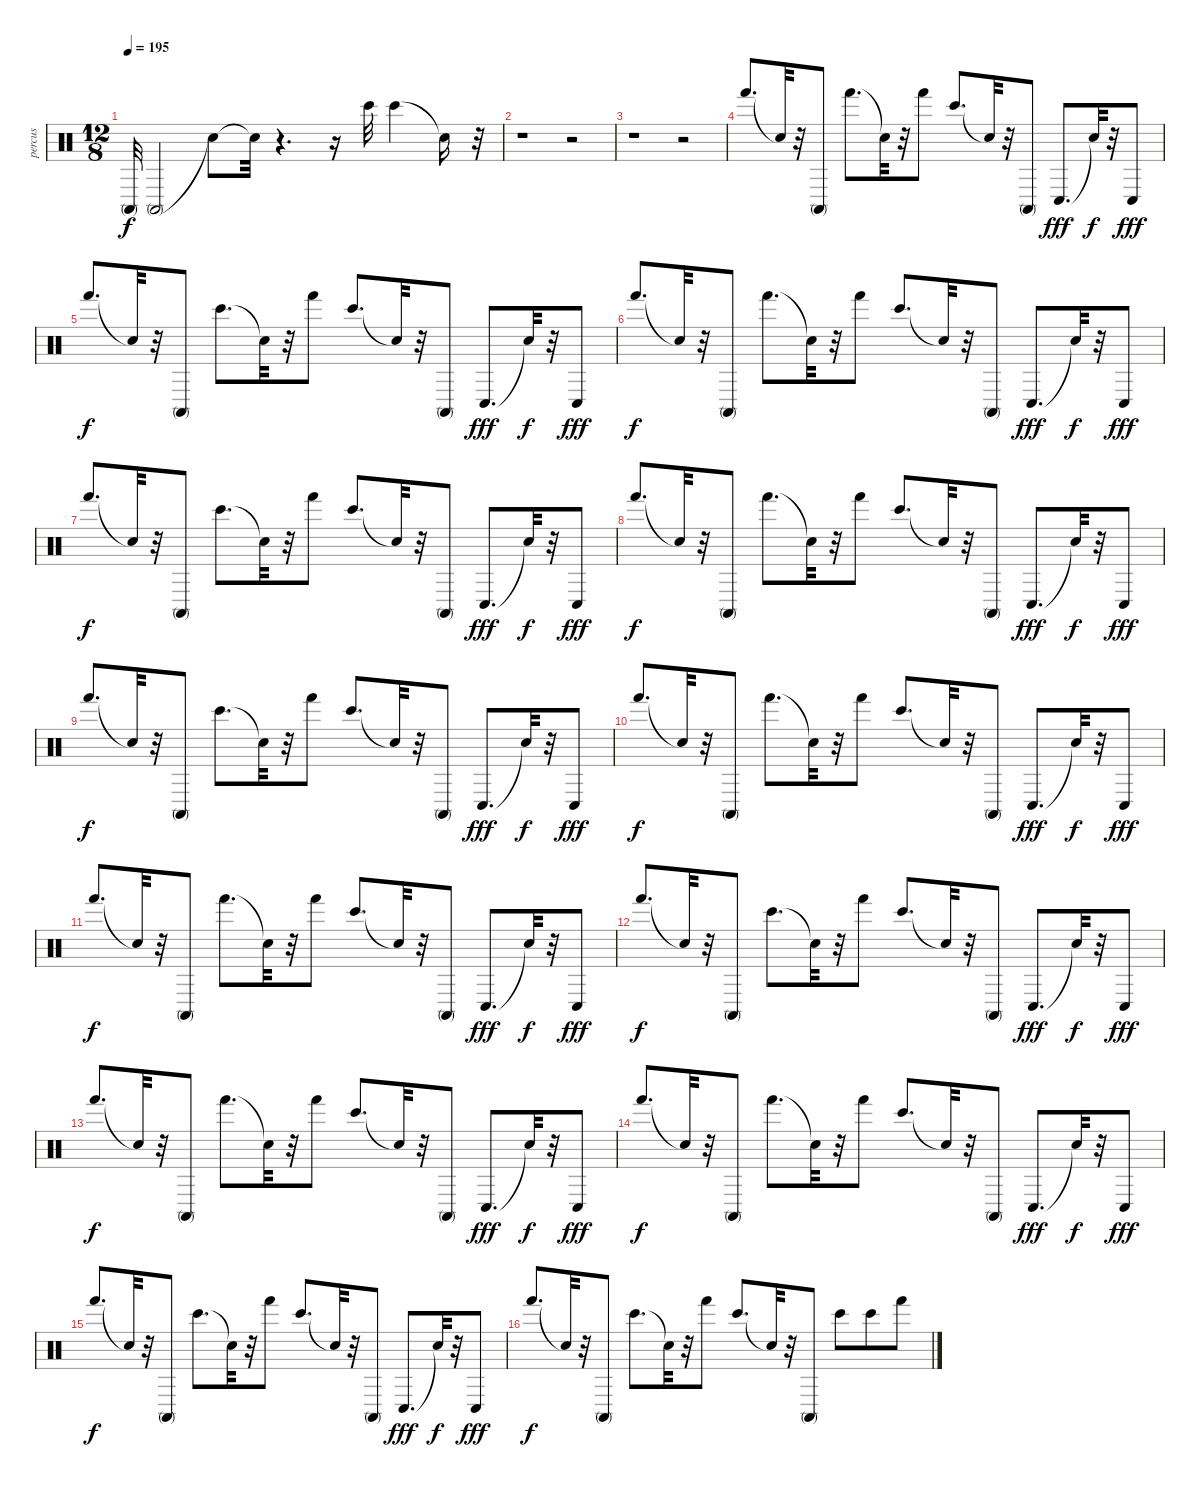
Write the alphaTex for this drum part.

\track ("percus" "percus") {instrument percussion}
\staff {score}
\articulation defaults
\ts (12 8)
\tempo 195
\clef neutral
\ks c "Conga high (mute)".32{dy f} "Conga high (mute)".2 "Snare (hit)"{t}.8 "Snare (hit)"{t}.32
r.4{d} r.16 "Bongo High (hit)".32 "Bongo High (hit)".4 "Snare (hit)"{t}.16 r.32 |
r.1 r.2 |
r.1 r.2 |
"Hand (hit)".8{d} "Snare (hit)"{t}.32 r.32 "Conga high (mute)".8 "Hand (hit)".8{d} "Snare (hit)"{t}.32 r.32 "Hand (hit)".8 "Bongo High (hit)".8{d} "Snare (hit)"{t}.32 r.32 "Conga high (mute)".8 "Conga low (hit)".8{d dy fff} "Snare (hit)"{t}.32{dy f} r.32 "Conga low (hit)".8{dy fff} |
"Hand (hit)".8{d dy f} "Snare (hit)"{t}.32 r.32 "Conga high (mute)".8 "Bongo High (hit)".8{d} "Snare (hit)"{t}.32 r.32 "Hand (hit)".8 "Bongo High (hit)".8{d} "Snare (hit)"{t}.32 r.32 "Conga high (mute)".8 "Conga low (hit)".8{d dy fff} "Snare (hit)"{t}.32{dy f} r.32 "Conga low (hit)".8{dy fff} |
"Hand (hit)".8{d dy f} "Snare (hit)"{t}.32 r.32 "Conga high (mute)".8 "Hand (hit)".8{d} "Snare (hit)"{t}.32 r.32 "Hand (hit)".8 "Bongo High (hit)".8{d} "Snare (hit)"{t}.32 r.32 "Conga high (mute)".8 "Conga low (hit)".8{d dy fff} "Snare (hit)"{t}.32{dy f} r.32 "Conga low (hit)".8{dy fff} |
"Hand (hit)".8{d dy f} "Snare (hit)"{t}.32 r.32 "Conga high (mute)".8 "Bongo High (hit)".8{d} "Snare (hit)"{t}.32 r.32 "Hand (hit)".8 "Bongo High (hit)".8{d} "Snare (hit)"{t}.32 r.32 "Conga high (mute)".8 "Conga low (hit)".8{d dy fff} "Snare (hit)"{t}.32{dy f} r.32 "Conga low (hit)".8{dy fff} |
"Hand (hit)".8{d dy f} "Snare (hit)"{t}.32 r.32 "Conga high (mute)".8 "Hand (hit)".8{d} "Snare (hit)"{t}.32 r.32 "Hand (hit)".8 "Bongo High (hit)".8{d} "Snare (hit)"{t}.32 r.32 "Conga high (mute)".8 "Conga low (hit)".8{d dy fff} "Snare (hit)"{t}.32{dy f} r.32 "Conga low (hit)".8{dy fff} |
"Hand (hit)".8{d dy f} "Snare (hit)"{t}.32 r.32 "Conga high (mute)".8 "Bongo High (hit)".8{d} "Snare (hit)"{t}.32 r.32 "Hand (hit)".8 "Bongo High (hit)".8{d} "Snare (hit)"{t}.32 r.32 "Conga high (mute)".8 "Conga low (hit)".8{d dy fff} "Snare (hit)"{t}.32{dy f} r.32 "Conga low (hit)".8{dy fff} |
"Hand (hit)".8{d dy f} "Snare (hit)"{t}.32 r.32 "Conga high (mute)".8 "Hand (hit)".8{d} "Snare (hit)"{t}.32 r.32 "Hand (hit)".8 "Bongo High (hit)".8{d} "Snare (hit)"{t}.32 r.32 "Conga high (mute)".8 "Conga low (hit)".8{d dy fff} "Snare (hit)"{t}.32{dy f} r.32 "Conga low (hit)".8{dy fff} |
"Hand (hit)".8{d dy f} "Snare (hit)"{t}.32 r.32 "Conga high (mute)".8 "Hand (hit)".8{d} "Snare (hit)"{t}.32 r.32 "Hand (hit)".8 "Bongo High (hit)".8{d} "Snare (hit)"{t}.32 r.32 "Conga high (mute)".8 "Conga low (hit)".8{d dy fff} "Snare (hit)"{t}.32{dy f} r.32 "Conga low (hit)".8{dy fff} |
"Hand (hit)".8{d dy f} "Snare (hit)"{t}.32 r.32 "Conga high (mute)".8 "Bongo High (hit)".8{d} "Snare (hit)"{t}.32 r.32 "Hand (hit)".8 "Bongo High (hit)".8{d} "Snare (hit)"{t}.32 r.32 "Conga high (mute)".8 "Conga low (hit)".8{d dy fff} "Snare (hit)"{t}.32{dy f} r.32 "Conga low (hit)".8{dy fff} |
"Hand (hit)".8{d dy f} "Snare (hit)"{t}.32 r.32 "Conga high (mute)".8 "Hand (hit)".8{d} "Snare (hit)"{t}.32 r.32 "Hand (hit)".8 "Bongo High (hit)".8{d} "Snare (hit)"{t}.32 r.32 "Conga high (mute)".8 "Conga low (hit)".8{d dy fff} "Snare (hit)"{t}.32{dy f} r.32 "Conga low (hit)".8{dy fff} |
"Hand (hit)".8{d dy f} "Snare (hit)"{t}.32 r.32 "Conga high (mute)".8 "Hand (hit)".8{d} "Snare (hit)"{t}.32 r.32 "Hand (hit)".8 "Bongo High (hit)".8{d} "Snare (hit)"{t}.32 r.32 "Conga high (mute)".8 "Conga low (hit)".8{d dy fff} "Snare (hit)"{t}.32{dy f} r.32 "Conga low (hit)".8{dy fff} |
"Hand (hit)".8{d dy f} "Snare (hit)"{t}.32 r.32 "Conga high (mute)".8 "Bongo High (hit)".8{d} "Snare (hit)"{t}.32 r.32 "Hand (hit)".8 "Bongo High (hit)".8{d} "Snare (hit)"{t}.32 r.32 "Conga high (mute)".8 "Conga low (hit)".8{d dy fff} "Snare (hit)"{t}.32{dy f} r.32 "Conga low (hit)".8{dy fff} |
"Hand (hit)".8{d dy f} "Snare (hit)"{t}.32 r.32 "Conga high (mute)".8 "Bongo High (hit)".8{d} "Snare (hit)"{t}.32 r.32 "Hand (hit)".8 "Bongo High (hit)".8{d} "Snare (hit)"{t}.32 r.32 "Conga high (mute)".8 "Bongo High (hit)".8 "Bongo High (hit)".8 "Hand (hit)".8
